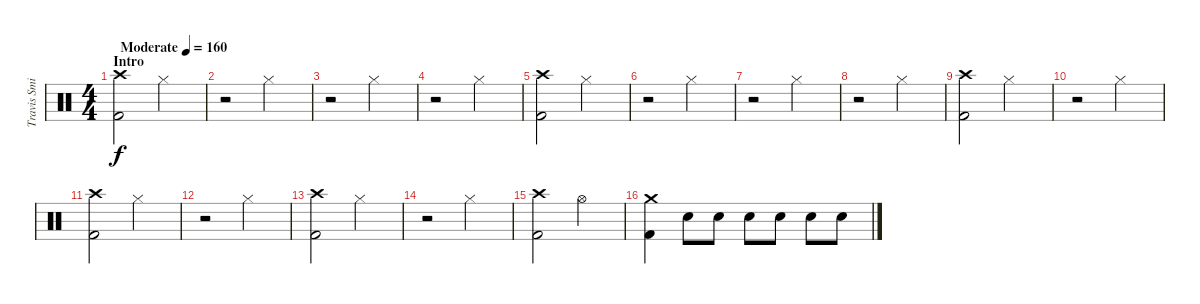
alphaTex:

\track ("Travis Smith" "Travis Smi") {instrument percussion}
\staff {score}
\articulation defaults
\ts (4 4)
\section ("" "Intro")
\tempo (160 "Moderate")
\clef neutral
\ks c
("Crash high (hit)" "Kick (hit) 2").2{dy f} "Hi-Hat (closed)".2 |
r.2 "Hi-Hat (closed)".2 |
r.2 "Hi-Hat (closed)".2 |
r.2 "Hi-Hat (closed)".2 |
("Crash high (hit)" "Kick (hit) 2").2 "Hi-Hat (closed)".2 |
r.2 "Hi-Hat (closed)".2 |
r.2 "Hi-Hat (closed)".2 |
r.2 "Hi-Hat (closed)".2 |
("Crash high (hit)" "Kick (hit) 2").2 "Hi-Hat (closed)".2 |
r.2 "Hi-Hat (closed)".2 |
("Crash high (hit)" "Kick (hit) 2").2 "Hi-Hat (closed)".2 |
r.2 "Hi-Hat (closed)".2 |
("Crash high (hit)" "Kick (hit) 2").2 "Hi-Hat (closed)".2 |
r.2 "Hi-Hat (closed)".2 |
("Crash high (hit)" "Kick (hit) 2").2 "Hi-Hat (open)".2 |
("Crash medium (hit)" "Kick (hit) 2").4 "Electric Snare (hit)".8 "Electric Snare (hit)".8 "Electric Snare (hit)".8 "Electric Snare (hit)".8 "Electric Snare (hit)".8 "Electric Snare (hit)".8
